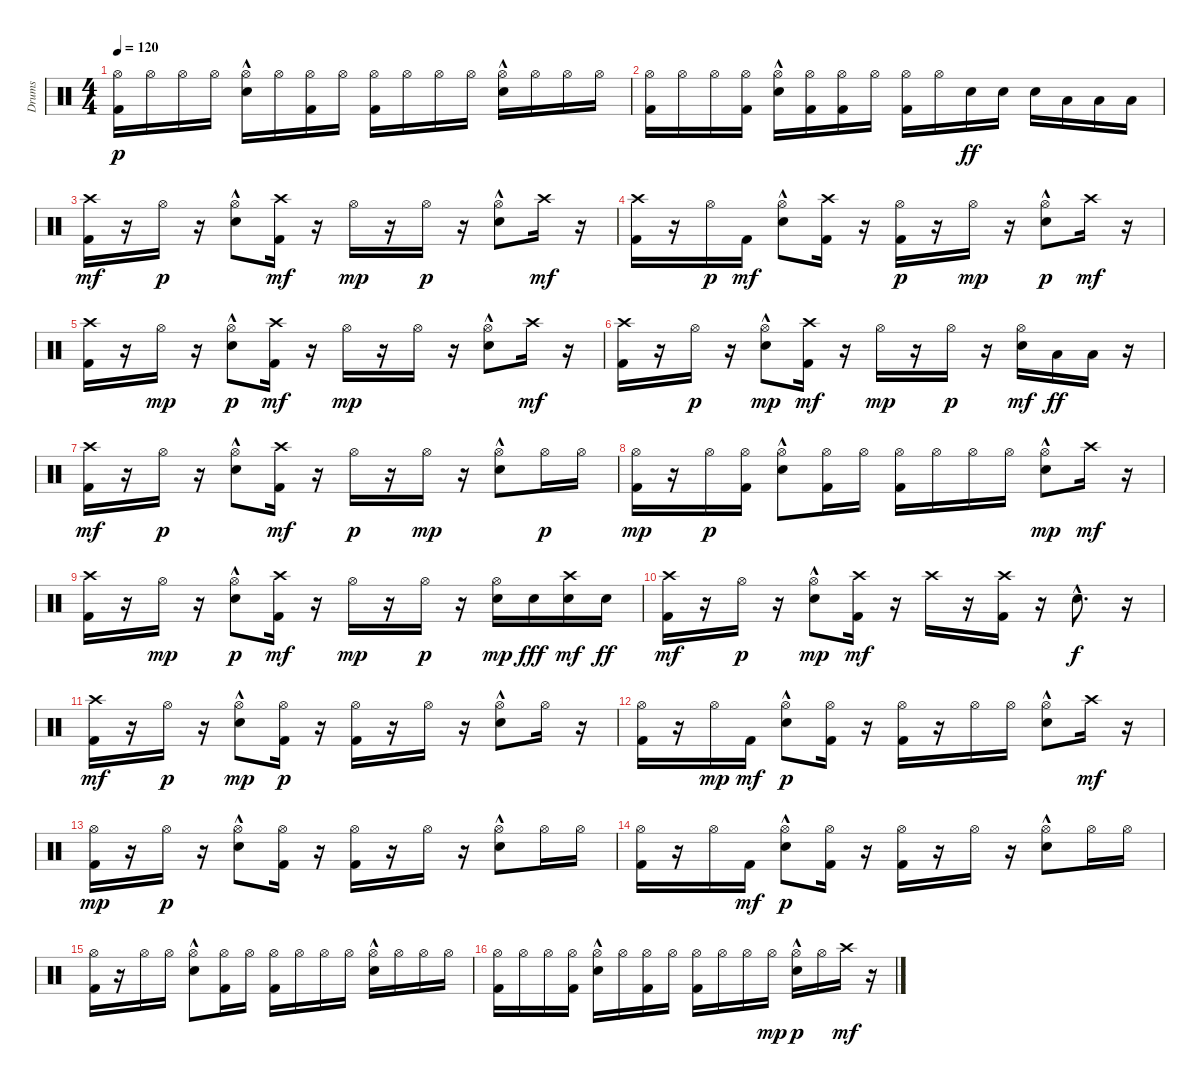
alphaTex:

\track ("Drums" "Drums") {instrument percussion}
\staff {score}
\articulation defaults
\ts (4 4)
\tempo 120
\clef neutral
\ks c
("Kick (hit) 2" "Hi-Hat (open)").16{dy p} "Hi-Hat (open)".16 "Hi-Hat (open)".16 "Hi-Hat (open)".16 ("Electric Snare (hit)"{hac} "Hi-Hat (open)").16 "Hi-Hat (open)".16 ("Kick (hit) 2" "Hi-Hat (open)").16 "Hi-Hat (open)".16 ("Kick (hit) 2" "Hi-Hat (open)").16 "Hi-Hat (open)".16 "Hi-Hat (open)".16 "Hi-Hat (open)".16 ("Electric Snare (hit)"{hac} "Hi-Hat (open)").16 "Hi-Hat (open)".16 "Hi-Hat (open)".16 "Hi-Hat (open)".16 |
("Kick (hit) 2" "Hi-Hat (open)").16 "Hi-Hat (open)".16 "Hi-Hat (open)".16 ("Kick (hit) 2" "Hi-Hat (open)").16 ("Electric Snare (hit)"{hac} "Hi-Hat (open)").16 ("Kick (hit) 2" "Hi-Hat (open)").16 ("Kick (hit) 2" "Hi-Hat (open)").16 "Hi-Hat (open)".16 ("Kick (hit) 2" "Hi-Hat (open)").16 "Hi-Hat (open)".16 "Electric Snare (hit)".16{dy ff} "Electric Snare (hit)".16 "Electric Snare (hit)".16 "Low Tom (hit)".16 "Low Tom (hit)".16 "Low Floor Tom (hit)".16 |
("Kick (hit) 2" "Crash high (hit)").16{dy mf} r.16 "Hi-Hat (open)".16{dy p} r.16 ("Electric Snare (hit)"{hac} "Hi-Hat (open)").8 ("Kick (hit) 2" "Crash high (hit)").16{dy mf} r.16 "Hi-Hat (open)".16{dy mp} r.16 "Hi-Hat (open)".16{dy p} r.16 ("Electric Snare (hit)"{hac} "Hi-Hat (open)").8 "Crash high (hit)".16{dy mf} r.16 |
("Kick (hit) 2" "Crash high (hit)").16 r.16 "Hi-Hat (open)".16{dy p} "Kick (hit) 2".16{dy mf} ("Electric Snare (hit)"{hac} "Hi-Hat (open)").8 ("Kick (hit) 2" "Crash high (hit)").16 r.16 ("Kick (hit) 2" "Hi-Hat (open)").16{dy p} r.16 "Hi-Hat (open)".16{dy mp} r.16 ("Electric Snare (hit)"{hac} "Hi-Hat (open)").8{dy p} "Crash high (hit)".16{dy mf} r.16 |
("Kick (hit) 2" "Crash high (hit)").16 r.16 "Hi-Hat (open)".16{dy mp} r.16 ("Electric Snare (hit)"{hac} "Hi-Hat (open)").8{dy p} ("Kick (hit) 2" "Crash high (hit)").16{dy mf} r.16 "Hi-Hat (open)".16{dy mp} r.16 "Hi-Hat (open)".16 r.16 ("Electric Snare (hit)"{hac} "Hi-Hat (open)").8 "Crash high (hit)".16{dy mf} r.16 |
("Kick (hit) 2" "Crash high (hit)").16 r.16 "Hi-Hat (open)".16{dy p} r.16 ("Electric Snare (hit)"{hac} "Hi-Hat (open)").8{dy mp} ("Kick (hit) 2" "Crash high (hit)").16{dy mf} r.16 "Hi-Hat (open)".16{dy mp} r.16 "Hi-Hat (open)".16{dy p} r.16 ("Electric Snare (hit)" "Hi-Hat (open)").16{dy mf} "Low Tom (hit)".16{dy ff} "Low Floor Tom (hit)".16 r.16 |
("Kick (hit) 2" "Crash high (hit)").16{dy mf} r.16 "Hi-Hat (open)".16{dy p} r.16 ("Electric Snare (hit)"{hac} "Hi-Hat (open)").8 ("Kick (hit) 2" "Crash high (hit)").16{dy mf} r.16 "Hi-Hat (open)".16{dy p} r.16 "Hi-Hat (open)".16{dy mp} r.16 ("Electric Snare (hit)"{hac} "Hi-Hat (open)").8 "Hi-Hat (open)".16{dy p} "Hi-Hat (open)".16 |
("Kick (hit) 2" "Hi-Hat (open)").16{dy mp} r.16 "Hi-Hat (open)".16{dy p} ("Kick (hit) 2" "Hi-Hat (open)").16 ("Electric Snare (hit)"{hac} "Hi-Hat (open)").8 ("Kick (hit) 2" "Hi-Hat (open)").16 "Hi-Hat (open)".16 ("Kick (hit) 2" "Hi-Hat (open)").16 "Hi-Hat (open)".16 "Hi-Hat (open)".16 "Hi-Hat (open)".16 ("Electric Snare (hit)"{hac} "Hi-Hat (open)").8{dy mp} "Crash high (hit)".16{dy mf} r.16 |
("Kick (hit) 2" "Crash high (hit)").16 r.16 "Hi-Hat (open)".16{dy mp} r.16 ("Electric Snare (hit)"{hac} "Hi-Hat (open)").8{dy p} ("Kick (hit) 2" "Crash high (hit)").16{dy mf} r.16 "Hi-Hat (open)".16{dy mp} r.16 "Hi-Hat (open)".16{dy p} r.16 ("Electric Snare (hit)" "Hi-Hat (open)").16{dy mp} "Electric Snare (hit)".16{dy fff} ("Electric Snare (hit)" "Crash high (hit)").16{dy mf} "Electric Snare (hit)".16{dy ff} |
("Kick (hit) 2" "Crash high (hit)").16{dy mf} r.16 "Hi-Hat (open)".16{dy p} r.16 ("Electric Snare (hit)"{hac} "Hi-Hat (open)").8{dy mp} ("Kick (hit) 2" "Crash high (hit)").16{dy mf} r.16 "Crash high (hit)".16 r.16 ("Kick (hit) 2" "Crash high (hit)").16 r.16 "Electric Snare (hit)"{hac}.8{d dy f} r.16 |
("Kick (hit) 2" "Crash high (hit)").16{dy mf} r.16 "Hi-Hat (open)".16{dy p} r.16 ("Electric Snare (hit)"{hac} "Hi-Hat (open)").8{dy mp} ("Kick (hit) 2" "Hi-Hat (open)").16{dy p} r.16 ("Kick (hit) 2" "Hi-Hat (open)").16 r.16 "Hi-Hat (open)".16 r.16 ("Electric Snare (hit)"{hac} "Hi-Hat (open)").8 "Hi-Hat (open)".16 r.16 |
("Kick (hit) 2" "Hi-Hat (open)").16 r.16 "Hi-Hat (open)".16{dy mp} "Kick (hit) 2".16{dy mf} ("Electric Snare (hit)"{hac} "Hi-Hat (open)").8{dy p} ("Kick (hit) 2" "Hi-Hat (open)").16 r.16 ("Kick (hit) 2" "Hi-Hat (open)").16 r.16 "Hi-Hat (open)".16 "Hi-Hat (open)".16 ("Electric Snare (hit)"{hac} "Hi-Hat (open)").8 "Crash high (hit)".16{dy mf} r.16 |
("Kick (hit) 2" "Hi-Hat (open)").16{dy mp} r.16 "Hi-Hat (open)".16{dy p} r.16 ("Electric Snare (hit)"{hac} "Hi-Hat (open)").8 ("Kick (hit) 2" "Hi-Hat (open)").16 r.16 ("Kick (hit) 2" "Hi-Hat (open)").16 r.16 "Hi-Hat (open)".16 r.16 ("Electric Snare (hit)"{hac} "Hi-Hat (open)").8 "Hi-Hat (open)".16 "Hi-Hat (open)".16 |
("Kick (hit) 2" "Hi-Hat (open)").16 r.16 "Hi-Hat (open)".16 "Kick (hit) 2".16{dy mf} ("Electric Snare (hit)"{hac} "Hi-Hat (open)").8{dy p} ("Kick (hit) 2" "Hi-Hat (open)").16 r.16 ("Kick (hit) 2" "Hi-Hat (open)").16 r.16 "Hi-Hat (open)".16 r.16 ("Electric Snare (hit)"{hac} "Hi-Hat (open)").8 "Hi-Hat (open)".16 "Hi-Hat (open)".16 |
("Kick (hit) 2" "Hi-Hat (open)").16 r.16 "Hi-Hat (open)".16 "Hi-Hat (open)".16 ("Electric Snare (hit)"{hac} "Hi-Hat (open)").8 ("Kick (hit) 2" "Hi-Hat (open)").16 "Hi-Hat (open)".16 ("Kick (hit) 2" "Hi-Hat (open)").16 "Hi-Hat (open)".16 "Hi-Hat (open)".16 "Hi-Hat (open)".16 ("Electric Snare (hit)"{hac} "Hi-Hat (open)").16 "Hi-Hat (open)".16 "Hi-Hat (open)".16 "Hi-Hat (open)".16 |
("Kick (hit) 2" "Hi-Hat (open)").16 "Hi-Hat (open)".16 "Hi-Hat (open)".16 ("Kick (hit) 2" "Hi-Hat (open)").16 ("Electric Snare (hit)"{hac} "Hi-Hat (open)").16 "Hi-Hat (open)".16 ("Kick (hit) 2" "Hi-Hat (open)").16 "Hi-Hat (open)".16 ("Kick (hit) 2" "Hi-Hat (open)").16 "Hi-Hat (open)".16 "Hi-Hat (open)".16 "Hi-Hat (open)".16{dy mp} ("Electric Snare (hit)"{hac} "Hi-Hat (open)").16{dy p} "Hi-Hat (open)".16 "Crash high (hit)".16{dy mf} r.16
